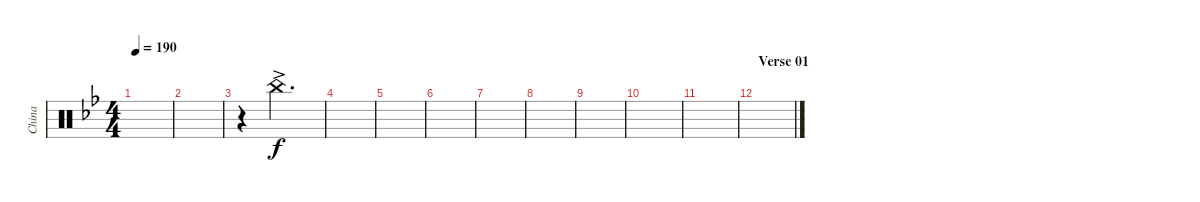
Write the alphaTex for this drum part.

\track ("China" "China") {instrument percussion}
\staff {score}
\articulation defaults
\ts (4 4)
\tempo 190
\clef neutral
\ks bb
|
|
r.4 "China (hit)"{ac}.2{d} |
|
|
|
|
|
|
|
|
\section ("" "Verse 01")
